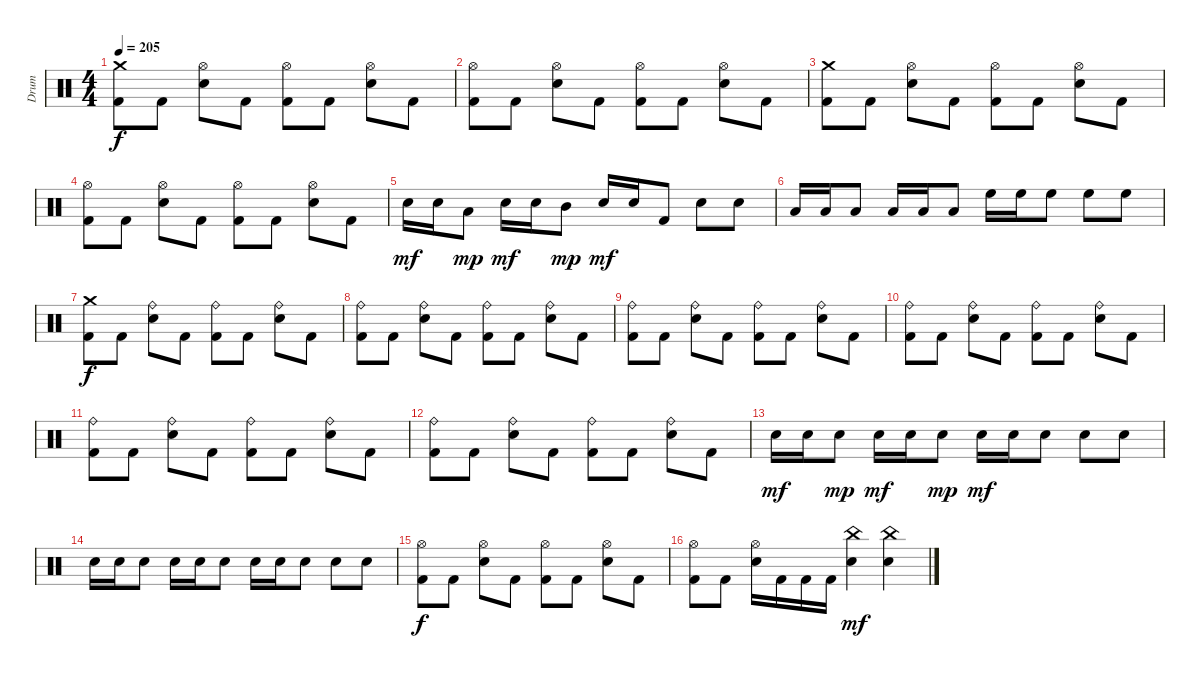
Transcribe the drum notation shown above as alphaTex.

\track ("Drum" "Drum") {instrument percussion}
\staff {score}
\articulation defaults
\ts (4 4)
\tempo 205
\clef neutral
\ks c
("Kick (hit) 2" "Crash medium (hit)").8{dy f} "Kick (hit) 2".8 ("Electric Snare (hit)" "Hi-Hat (open)").8 "Kick (hit) 2".8 ("Kick (hit) 2" "Hi-Hat (open)").8 "Kick (hit) 2".8 ("Electric Snare (hit)" "Hi-Hat (open)").8 "Kick (hit) 2".8 |
("Kick (hit) 2" "Hi-Hat (open)").8 "Kick (hit) 2".8 ("Electric Snare (hit)" "Hi-Hat (open)").8 "Kick (hit) 2".8 ("Kick (hit) 2" "Hi-Hat (open)").8 "Kick (hit) 2".8 ("Electric Snare (hit)" "Hi-Hat (open)").8 "Kick (hit) 2".8 |
("Kick (hit) 2" "Crash medium (hit)").8 "Kick (hit) 2".8 ("Electric Snare (hit)" "Hi-Hat (open)").8 "Kick (hit) 2".8 ("Kick (hit) 2" "Hi-Hat (open)").8 "Kick (hit) 2".8 ("Electric Snare (hit)" "Hi-Hat (open)").8 "Kick (hit) 2".8 |
("Kick (hit) 2" "Hi-Hat (open)").8 "Kick (hit) 2".8 ("Electric Snare (hit)" "Hi-Hat (open)").8 "Kick (hit) 2".8 ("Kick (hit) 2" "Hi-Hat (open)").8 "Kick (hit) 2".8 ("Electric Snare (hit)" "Hi-Hat (open)").8 "Kick (hit) 2".8 |
"Electric Snare (hit)".16{dy mf} "Electric Snare (hit)".16 "Low Tom (hit)".8{dy mp} "Electric Snare (hit)".16{dy mf} "Electric Snare (hit)".16 "Mid Tom (hit)".8{dy mp} "Electric Snare (hit)".16{dy mf} "Electric Snare (hit)".16 "Kick (hit) 2".8 "Electric Snare (hit)".8 "Electric Snare (hit)".8 |
"Low Tom (hit)".16 "Low Tom (hit)".16 "Low Tom (hit)".8 "Low Tom (hit)".16 "Low Tom (hit)".16 "Low Tom (hit)".8 "High Floor Tom (hit)".16 "High Floor Tom (hit)".16 "High Floor Tom (hit)".8 "High Floor Tom (hit)".8 "High Floor Tom (hit)".8 |
("Kick (hit) 2" "Crash medium (hit)").8{dy f} "Kick (hit) 2".8 ("Electric Snare (hit)" "Ride (bell)").8 "Kick (hit) 2".8 ("Kick (hit) 2" "Ride (bell)").8 "Kick (hit) 2".8 ("Electric Snare (hit)" "Ride (bell)").8 "Kick (hit) 2".8 |
("Kick (hit) 2" "Ride (bell)").8 "Kick (hit) 2".8 ("Electric Snare (hit)" "Ride (bell)").8 "Kick (hit) 2".8 ("Kick (hit) 2" "Ride (bell)").8 "Kick (hit) 2".8 ("Electric Snare (hit)" "Ride (bell)").8 "Kick (hit) 2".8 |
("Kick (hit) 2" "Ride (bell)").8 "Kick (hit) 2".8 ("Electric Snare (hit)" "Ride (bell)").8 "Kick (hit) 2".8 ("Kick (hit) 2" "Ride (bell)").8 "Kick (hit) 2".8 ("Electric Snare (hit)" "Ride (bell)").8 "Kick (hit) 2".8 |
("Kick (hit) 2" "Ride (bell)").8 "Kick (hit) 2".8 ("Electric Snare (hit)" "Ride (bell)").8 "Kick (hit) 2".8 ("Kick (hit) 2" "Ride (bell)").8 "Kick (hit) 2".8 ("Electric Snare (hit)" "Ride (bell)").8 "Kick (hit) 2".8 |
("Kick (hit) 2" "Ride (bell)").8 "Kick (hit) 2".8 ("Electric Snare (hit)" "Ride (bell)").8 "Kick (hit) 2".8 ("Kick (hit) 2" "Ride (bell)").8 "Kick (hit) 2".8 ("Electric Snare (hit)" "Ride (bell)").8 "Kick (hit) 2".8 |
("Kick (hit) 2" "Ride (bell)").8 "Kick (hit) 2".8 ("Electric Snare (hit)" "Ride (bell)").8 "Kick (hit) 2".8 ("Kick (hit) 2" "Ride (bell)").8 "Kick (hit) 2".8 ("Electric Snare (hit)" "Ride (bell)").8 "Kick (hit) 2".8 |
"Electric Snare (hit)".16{dy mf} "Electric Snare (hit)".16 "Snare (hit) 2".8{dy mp} "Electric Snare (hit)".16{dy mf} "Electric Snare (hit)".16 "Snare (hit) 2".8{dy mp} "Electric Snare (hit)".16{dy mf} "Electric Snare (hit)".16 "Snare (hit) 2".8 "Electric Snare (hit)".8 "Electric Snare (hit)".8 |
"Electric Snare (hit)".16 "Electric Snare (hit)".16 "Electric Snare (hit)".8 "Electric Snare (hit)".16 "Electric Snare (hit)".16 "Electric Snare (hit)".8 "Electric Snare (hit)".16 "Electric Snare (hit)".16 "Electric Snare (hit)".8 "Electric Snare (hit)".8 "Electric Snare (hit)".8 |
("Kick (hit) 2" "Hi-Hat (open)").8{dy f} "Kick (hit) 2".8 ("Electric Snare (hit)" "Hi-Hat (open)").8 "Kick (hit) 2".8 ("Kick (hit) 2" "Hi-Hat (open)").8 "Kick (hit) 2".8 ("Electric Snare (hit)" "Hi-Hat (open)").8 "Kick (hit) 2".8 |
("Kick (hit) 2" "Hi-Hat (open)").8 "Kick (hit) 2".8 ("Electric Snare (hit)" "Hi-Hat (open)").16 "Kick (hit) 2".16 "Kick (hit) 2".16 "Kick (hit) 2".16 ("Electric Snare (hit)" "China (hit)").4{dy mf} ("Electric Snare (hit)" "China (hit)").4
